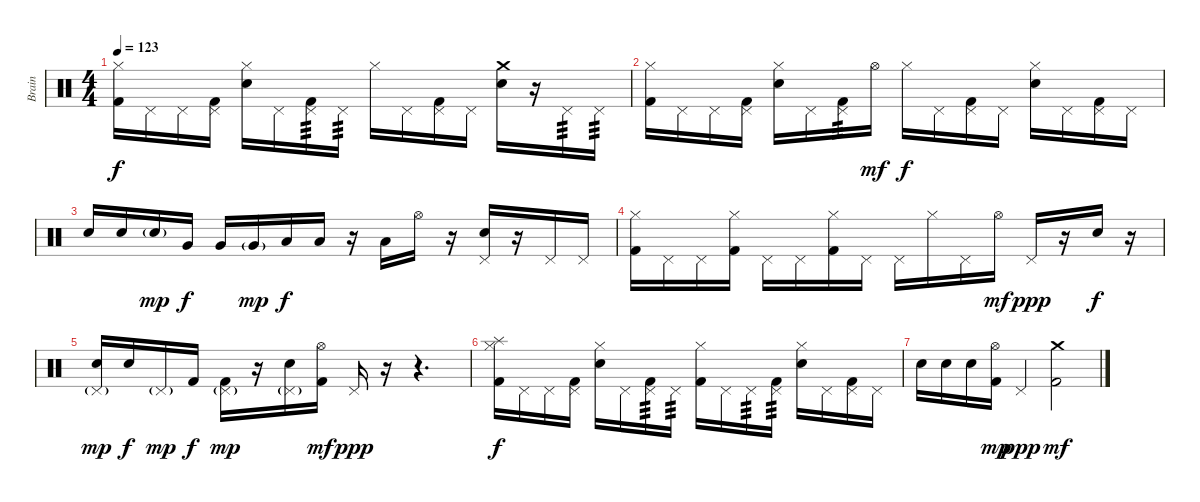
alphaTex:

\track ("Brain" "Brain") {instrument percussion}
\staff {score}
\articulation defaults
\ts (4 4)
\tempo 123
\clef neutral
\ks c
("Hi-Hat (closed)" "Kick (hit) 2").16{dy f} "Pedal Hi-Hat (hit)".16 "Pedal Hi-Hat (hit)".16 ("Pedal Hi-Hat (hit)" "Kick (hit) 2").16 ("Hi-Hat (closed)" "Electric Snare (hit)").16 "Pedal Hi-Hat (hit)".16 ("Pedal Hi-Hat (hit)" "Kick (hit) 2").16{tp 3} "Pedal Hi-Hat (hit)".16{tp 3} "Hi-Hat (closed)".16 "Pedal Hi-Hat (hit)".16 ("Pedal Hi-Hat (hit)" "Kick (hit) 2").16 "Pedal Hi-Hat (hit)".16 ("Crash medium (hit)" "Electric Snare (hit)").16 r.16 "Pedal Hi-Hat (hit)".16{tp 3} "Pedal Hi-Hat (hit)".16{tp 3} |
("Hi-Hat (closed)" "Kick (hit) 2").16 "Pedal Hi-Hat (hit)".16 "Pedal Hi-Hat (hit)".16 ("Pedal Hi-Hat (hit)" "Kick (hit) 2").16 ("Hi-Hat (closed)" "Electric Snare (hit)").16 "Pedal Hi-Hat (hit)".16 ("Pedal Hi-Hat (hit)" "Kick (hit) 2").16{tp 3} "Hi-Hat (open)".16{dy mf} "Hi-Hat (closed)".16{dy f} "Pedal Hi-Hat (hit)".16 ("Pedal Hi-Hat (hit)" "Kick (hit) 2").16 "Pedal Hi-Hat (hit)".16 ("Hi-Hat (closed)" "Electric Snare (hit)").16 "Pedal Hi-Hat (hit)".16 ("Pedal Hi-Hat (hit)" "Kick (hit) 2").16 "Pedal Hi-Hat (hit)".16 |
"Electric Snare (hit)".16 "Electric Snare (hit)".16 "Electric Snare (hit)"{g}.16{dy mp} "Very Low Tom (hit)".16{dy f} "Very Low Tom (hit)".16 "Very Low Tom (hit)"{g}.16{dy mp} "Low Floor Tom (hit)".16{dy f} "Low Floor Tom (hit)".16 r.16 "Low Floor Tom (hit)".16 "Hi-Hat (open)".16 r.16 ("Pedal Hi-Hat (hit)" "Electric Snare (hit)").16 r.16 "Pedal Hi-Hat (hit)".16 "Pedal Hi-Hat (hit)".16 |
("Hi-Hat (closed)" "Kick (hit) 2").16 "Pedal Hi-Hat (hit)".16 "Pedal Hi-Hat (hit)".16 ("Hi-Hat (closed)" "Kick (hit) 2").16 "Pedal Hi-Hat (hit)".16 "Pedal Hi-Hat (hit)".16 ("Hi-Hat (closed)" "Kick (hit) 2").16 "Pedal Hi-Hat (hit)".16 "Pedal Hi-Hat (hit)".16 "Hi-Hat (closed)".16 "Pedal Hi-Hat (hit)".16 "Hi-Hat (open)".16{dy mf} "Pedal Hi-Hat (hit)".16{dy ppp} r.16 "Electric Snare (hit)".16{dy f} r.16 |
("Pedal Hi-Hat (hit)"{g} "Electric Snare (hit)").16{dy mp} "Electric Snare (hit)".16{dy f} "Pedal Hi-Hat (hit)"{g}.16{dy mp} "Kick (hit) 2".16{dy f} ("Pedal Hi-Hat (hit)"{g} "Kick (hit) 2").16{dy mp} r.16 ("Pedal Hi-Hat (hit)"{g} "Electric Snare (hit)").16 ("Hi-Hat (open)" "Kick (hit) 2").16{dy mf} "Pedal Hi-Hat (hit)".16{dy ppp} r.16 r.4{d} |
("Hi-Hat (closed)" "Splash (hit)" "Kick (hit) 2").16{dy f} "Pedal Hi-Hat (hit)".16 "Pedal Hi-Hat (hit)".16 ("Pedal Hi-Hat (hit)" "Kick (hit) 2").16 ("Hi-Hat (closed)" "Electric Snare (hit)").16 "Pedal Hi-Hat (hit)".16 ("Pedal Hi-Hat (hit)" "Kick (hit) 2").16{tp 3} "Pedal Hi-Hat (hit)".16{tp 3} ("Hi-Hat (closed)" "Kick (hit) 2").16 "Pedal Hi-Hat (hit)".16 "Pedal Hi-Hat (hit)".16{tp 3} ("Pedal Hi-Hat (hit)" "Kick (hit) 2").16{tp 3} ("Hi-Hat (closed)" "Electric Snare (hit)").16 "Pedal Hi-Hat (hit)".16 ("Pedal Hi-Hat (hit)" "Kick (hit) 2").16 "Pedal Hi-Hat (hit)".16 |
"Electric Snare (hit)".16 "Electric Snare (hit)".16 "Electric Snare (hit)".16 ("Hi-Hat (open)" "Kick (hit) 2").16{dy mp} "Pedal Hi-Hat (hit)".4{dy ppp} ("Crash medium (hit)" "Kick (hit) 2").2{dy mf}
